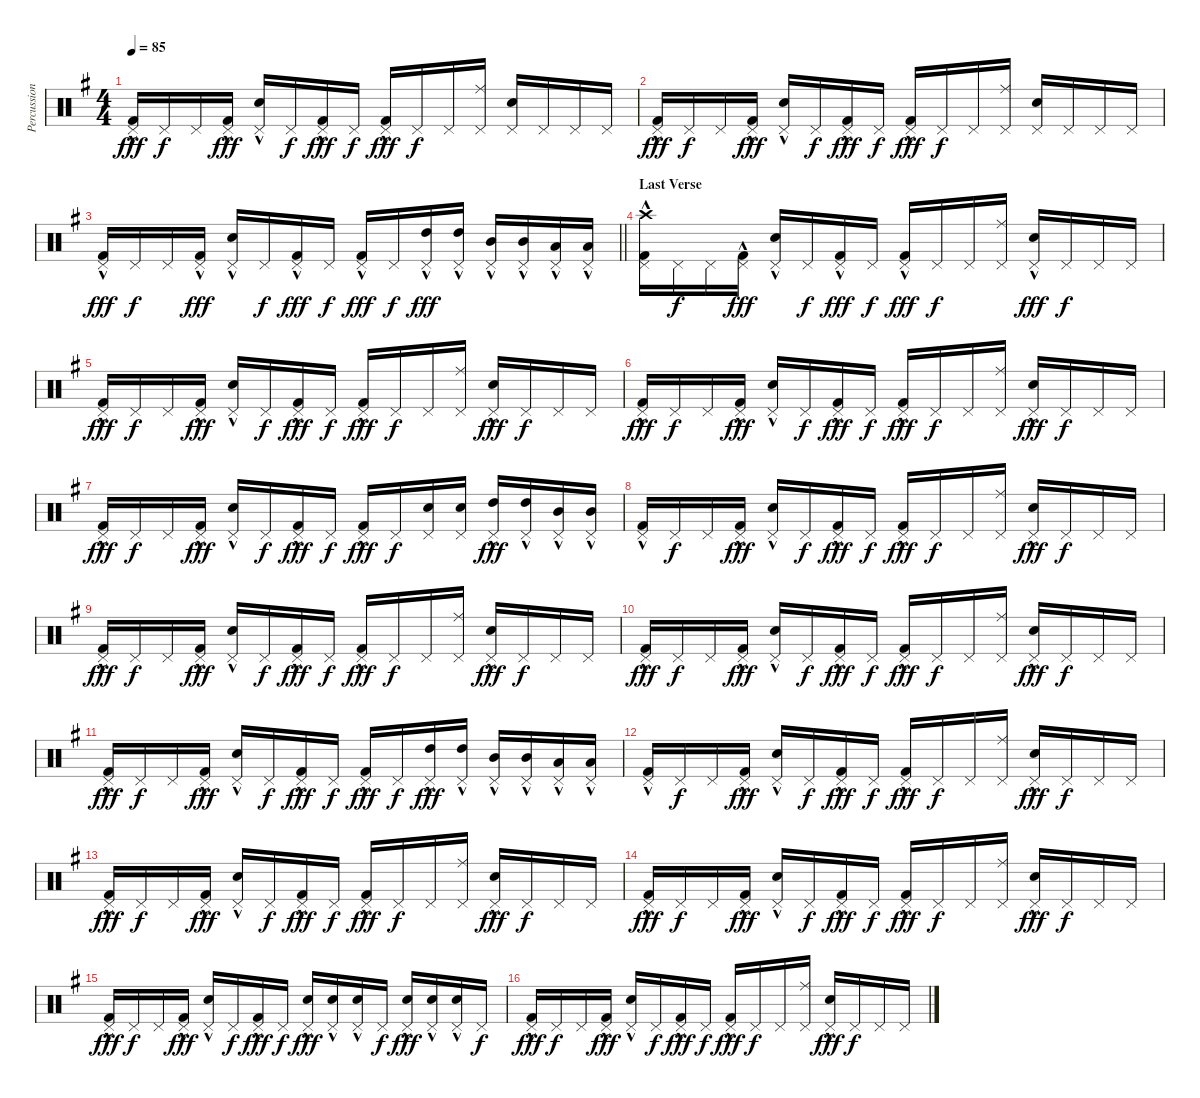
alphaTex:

\track ("Percussion" "Percussion") {instrument percussion}
\staff {score}
\articulation defaults
\ts (4 4)
\tempo 85
\clef neutral
\ks g
("Pedal Hi-Hat (hit)" "Kick (hit) 2"{hac}).16{dy fff} "Pedal Hi-Hat (hit)".16{dy f} "Pedal Hi-Hat (hit)".16 ("Pedal Hi-Hat (hit)" "Kick (hit) 2"{hac}).16{dy fff} ("Pedal Hi-Hat (hit)" "Snare (hit) 2"{hac}).16 "Pedal Hi-Hat (hit)".16{dy f} ("Pedal Hi-Hat (hit)" "Kick (hit) 2"{hac}).16{dy fff} "Pedal Hi-Hat (hit)".16{dy f} ("Pedal Hi-Hat (hit)" "Kick (hit) 2"{hac}).16{dy fff} "Pedal Hi-Hat (hit)".16{dy f} "Pedal Hi-Hat (hit)".16 ("Pedal Hi-Hat (hit)" "Ride (middle)").16 ("Pedal Hi-Hat (hit)" "Electric Snare (hit)").16 "Pedal Hi-Hat (hit)".16 "Pedal Hi-Hat (hit)".16 "Pedal Hi-Hat (hit)".16 |
("Pedal Hi-Hat (hit)" "Kick (hit) 2"{hac}).16{dy fff} "Pedal Hi-Hat (hit)".16{dy f} "Pedal Hi-Hat (hit)".16 ("Pedal Hi-Hat (hit)" "Kick (hit) 2"{hac}).16{dy fff} ("Pedal Hi-Hat (hit)" "Snare (hit) 2"{hac}).16 "Pedal Hi-Hat (hit)".16{dy f} ("Pedal Hi-Hat (hit)" "Kick (hit) 2"{hac}).16{dy fff} "Pedal Hi-Hat (hit)".16{dy f} ("Pedal Hi-Hat (hit)" "Kick (hit) 2"{hac}).16{dy fff} "Pedal Hi-Hat (hit)".16{dy f} "Pedal Hi-Hat (hit)".16 ("Pedal Hi-Hat (hit)" "Ride (middle)").16 ("Pedal Hi-Hat (hit)" "Electric Snare (hit)").16 "Pedal Hi-Hat (hit)".16 "Pedal Hi-Hat (hit)".16 "Pedal Hi-Hat (hit)".16 |
\barLineRight lightlight
("Pedal Hi-Hat (hit)" "Kick (hit) 2"{hac}).16{dy fff} "Pedal Hi-Hat (hit)".16{dy f} "Pedal Hi-Hat (hit)".16 ("Pedal Hi-Hat (hit)" "Kick (hit) 2"{hac}).16{dy fff} ("Pedal Hi-Hat (hit)" "Snare (hit) 2"{hac}).16 "Pedal Hi-Hat (hit)".16{dy f} ("Pedal Hi-Hat (hit)" "Kick (hit) 2"{hac}).16{dy fff} "Pedal Hi-Hat (hit)".16{dy f} ("Pedal Hi-Hat (hit)" "Kick (hit) 2"{hac}).16{dy fff} "Pedal Hi-Hat (hit)".16{dy f} ("Pedal Hi-Hat (hit)" "High Tom (hit)"{hac}).16{dy fff} ("Pedal Hi-Hat (hit)" "High Tom (hit)"{hac}).16 ("Pedal Hi-Hat (hit)" "Mid Tom (hit)"{hac}).16 ("Pedal Hi-Hat (hit)" "Mid Tom (hit)"{hac}).16 ("Pedal Hi-Hat (hit)" "Low Tom (hit)"{hac}).16 ("Pedal Hi-Hat (hit)" "Low Tom (hit)"{hac}).16 |
\section ("" "Last Verse")
("Pedal Hi-Hat (hit)" "Crash high (hit)" "Kick (hit) 2"{hac}).16 "Pedal Hi-Hat (hit)".16{dy f} "Pedal Hi-Hat (hit)".16 ("Pedal Hi-Hat (hit)" "Kick (hit) 2"{hac}).16{dy fff} ("Pedal Hi-Hat (hit)" "Snare (hit) 2"{hac}).16 "Pedal Hi-Hat (hit)".16{dy f} ("Pedal Hi-Hat (hit)" "Kick (hit) 2"{hac}).16{dy fff} "Pedal Hi-Hat (hit)".16{dy f} ("Pedal Hi-Hat (hit)" "Kick (hit) 2"{hac}).16{dy fff} "Pedal Hi-Hat (hit)".16{dy f} "Pedal Hi-Hat (hit)".16 ("Pedal Hi-Hat (hit)" "Ride (middle)").16 ("Pedal Hi-Hat (hit)" "Snare (hit) 2"{hac}).16{dy fff} "Pedal Hi-Hat (hit)".16{dy f} "Pedal Hi-Hat (hit)".16 "Pedal Hi-Hat (hit)".16 |
("Pedal Hi-Hat (hit)" "Kick (hit) 2"{hac}).16{dy fff} "Pedal Hi-Hat (hit)".16{dy f} "Pedal Hi-Hat (hit)".16 ("Pedal Hi-Hat (hit)" "Kick (hit) 2"{hac}).16{dy fff} ("Pedal Hi-Hat (hit)" "Snare (hit) 2"{hac}).16 "Pedal Hi-Hat (hit)".16{dy f} ("Pedal Hi-Hat (hit)" "Kick (hit) 2"{hac}).16{dy fff} "Pedal Hi-Hat (hit)".16{dy f} ("Pedal Hi-Hat (hit)" "Kick (hit) 2"{hac}).16{dy fff} "Pedal Hi-Hat (hit)".16{dy f} "Pedal Hi-Hat (hit)".16 ("Pedal Hi-Hat (hit)" "Ride (middle)").16 ("Pedal Hi-Hat (hit)" "Snare (hit) 2"{hac}).16{dy fff} "Pedal Hi-Hat (hit)".16{dy f} "Pedal Hi-Hat (hit)".16 "Pedal Hi-Hat (hit)".16 |
("Pedal Hi-Hat (hit)" "Kick (hit) 2"{hac}).16{dy fff} "Pedal Hi-Hat (hit)".16{dy f} "Pedal Hi-Hat (hit)".16 ("Pedal Hi-Hat (hit)" "Kick (hit) 2"{hac}).16{dy fff} ("Pedal Hi-Hat (hit)" "Snare (hit) 2"{hac}).16 "Pedal Hi-Hat (hit)".16{dy f} ("Pedal Hi-Hat (hit)" "Kick (hit) 2"{hac}).16{dy fff} "Pedal Hi-Hat (hit)".16{dy f} ("Pedal Hi-Hat (hit)" "Kick (hit) 2"{hac}).16{dy fff} "Pedal Hi-Hat (hit)".16{dy f} "Pedal Hi-Hat (hit)".16 ("Pedal Hi-Hat (hit)" "Ride (middle)").16 ("Pedal Hi-Hat (hit)" "Snare (hit) 2"{hac}).16{dy fff} "Pedal Hi-Hat (hit)".16{dy f} "Pedal Hi-Hat (hit)".16 "Pedal Hi-Hat (hit)".16 |
("Pedal Hi-Hat (hit)" "Kick (hit) 2"{hac}).16{dy fff} "Pedal Hi-Hat (hit)".16{dy f} "Pedal Hi-Hat (hit)".16 ("Pedal Hi-Hat (hit)" "Kick (hit) 2"{hac}).16{dy fff} ("Pedal Hi-Hat (hit)" "Snare (hit) 2"{hac}).16 "Pedal Hi-Hat (hit)".16{dy f} ("Pedal Hi-Hat (hit)" "Kick (hit) 2"{hac}).16{dy fff} "Pedal Hi-Hat (hit)".16{dy f} ("Pedal Hi-Hat (hit)" "Kick (hit) 2"{hac}).16{dy fff} "Pedal Hi-Hat (hit)".16{dy f} ("Pedal Hi-Hat (hit)" "Snare (hit) 2").16 ("Pedal Hi-Hat (hit)" "Snare (hit) 2").16 ("Pedal Hi-Hat (hit)" "High Tom (hit)"{hac}).16{dy fff} ("Pedal Hi-Hat (hit)" "High Tom (hit)"{hac}).16 ("Pedal Hi-Hat (hit)" "Mid Tom (hit)"{hac}).16 ("Pedal Hi-Hat (hit)" "Mid Tom (hit)"{hac}).16 |
("Pedal Hi-Hat (hit)" "Kick (hit) 2"{hac}).16 "Pedal Hi-Hat (hit)".16{dy f} "Pedal Hi-Hat (hit)".16 ("Pedal Hi-Hat (hit)" "Kick (hit) 2"{hac}).16{dy fff} ("Pedal Hi-Hat (hit)" "Snare (hit) 2"{hac}).16 "Pedal Hi-Hat (hit)".16{dy f} ("Pedal Hi-Hat (hit)" "Kick (hit) 2"{hac}).16{dy fff} "Pedal Hi-Hat (hit)".16{dy f} ("Pedal Hi-Hat (hit)" "Kick (hit) 2"{hac}).16{dy fff} "Pedal Hi-Hat (hit)".16{dy f} "Pedal Hi-Hat (hit)".16 ("Pedal Hi-Hat (hit)" "Ride (middle)").16 ("Pedal Hi-Hat (hit)" "Snare (hit) 2"{hac}).16{dy fff} "Pedal Hi-Hat (hit)".16{dy f} "Pedal Hi-Hat (hit)".16 "Pedal Hi-Hat (hit)".16 |
("Pedal Hi-Hat (hit)" "Kick (hit) 2"{hac}).16{dy fff} "Pedal Hi-Hat (hit)".16{dy f} "Pedal Hi-Hat (hit)".16 ("Pedal Hi-Hat (hit)" "Kick (hit) 2"{hac}).16{dy fff} ("Pedal Hi-Hat (hit)" "Snare (hit) 2"{hac}).16 "Pedal Hi-Hat (hit)".16{dy f} ("Pedal Hi-Hat (hit)" "Kick (hit) 2"{hac}).16{dy fff} "Pedal Hi-Hat (hit)".16{dy f} ("Pedal Hi-Hat (hit)" "Kick (hit) 2"{hac}).16{dy fff} "Pedal Hi-Hat (hit)".16{dy f} "Pedal Hi-Hat (hit)".16 ("Pedal Hi-Hat (hit)" "Ride (middle)").16 ("Pedal Hi-Hat (hit)" "Snare (hit) 2"{hac}).16{dy fff} "Pedal Hi-Hat (hit)".16{dy f} "Pedal Hi-Hat (hit)".16 "Pedal Hi-Hat (hit)".16 |
("Pedal Hi-Hat (hit)" "Kick (hit) 2"{hac}).16{dy fff} "Pedal Hi-Hat (hit)".16{dy f} "Pedal Hi-Hat (hit)".16 ("Pedal Hi-Hat (hit)" "Kick (hit) 2"{hac}).16{dy fff} ("Pedal Hi-Hat (hit)" "Snare (hit) 2"{hac}).16 "Pedal Hi-Hat (hit)".16{dy f} ("Pedal Hi-Hat (hit)" "Kick (hit) 2"{hac}).16{dy fff} "Pedal Hi-Hat (hit)".16{dy f} ("Pedal Hi-Hat (hit)" "Kick (hit) 2"{hac}).16{dy fff} "Pedal Hi-Hat (hit)".16{dy f} "Pedal Hi-Hat (hit)".16 ("Pedal Hi-Hat (hit)" "Ride (middle)").16 ("Pedal Hi-Hat (hit)" "Snare (hit) 2"{hac}).16{dy fff} "Pedal Hi-Hat (hit)".16{dy f} "Pedal Hi-Hat (hit)".16 "Pedal Hi-Hat (hit)".16 |
("Pedal Hi-Hat (hit)" "Kick (hit) 2"{hac}).16{dy fff} "Pedal Hi-Hat (hit)".16{dy f} "Pedal Hi-Hat (hit)".16 ("Pedal Hi-Hat (hit)" "Kick (hit) 2"{hac}).16{dy fff} ("Pedal Hi-Hat (hit)" "Snare (hit) 2"{hac}).16 "Pedal Hi-Hat (hit)".16{dy f} ("Pedal Hi-Hat (hit)" "Kick (hit) 2"{hac}).16{dy fff} "Pedal Hi-Hat (hit)".16{dy f} ("Pedal Hi-Hat (hit)" "Kick (hit) 2"{hac}).16{dy fff} "Pedal Hi-Hat (hit)".16{dy f} ("Pedal Hi-Hat (hit)" "High Tom (hit)"{hac}).16{dy fff} ("Pedal Hi-Hat (hit)" "High Tom (hit)"{hac}).16 ("Pedal Hi-Hat (hit)" "Mid Tom (hit)"{hac}).16 ("Pedal Hi-Hat (hit)" "Mid Tom (hit)"{hac}).16 ("Pedal Hi-Hat (hit)" "Low Tom (hit)"{hac}).16 ("Pedal Hi-Hat (hit)" "Low Tom (hit)"{hac}).16 |
("Pedal Hi-Hat (hit)" "Kick (hit) 2"{hac}).16 "Pedal Hi-Hat (hit)".16{dy f} "Pedal Hi-Hat (hit)".16 ("Pedal Hi-Hat (hit)" "Kick (hit) 2"{hac}).16{dy fff} ("Pedal Hi-Hat (hit)" "Snare (hit) 2"{hac}).16 "Pedal Hi-Hat (hit)".16{dy f} ("Pedal Hi-Hat (hit)" "Kick (hit) 2"{hac}).16{dy fff} "Pedal Hi-Hat (hit)".16{dy f} ("Pedal Hi-Hat (hit)" "Kick (hit) 2"{hac}).16{dy fff} "Pedal Hi-Hat (hit)".16{dy f} "Pedal Hi-Hat (hit)".16 ("Pedal Hi-Hat (hit)" "Ride (middle)").16 ("Pedal Hi-Hat (hit)" "Snare (hit) 2"{hac}).16{dy fff} "Pedal Hi-Hat (hit)".16{dy f} "Pedal Hi-Hat (hit)".16 "Pedal Hi-Hat (hit)".16 |
("Pedal Hi-Hat (hit)" "Kick (hit) 2"{hac}).16{dy fff} "Pedal Hi-Hat (hit)".16{dy f} "Pedal Hi-Hat (hit)".16 ("Pedal Hi-Hat (hit)" "Kick (hit) 2"{hac}).16{dy fff} ("Pedal Hi-Hat (hit)" "Snare (hit) 2"{hac}).16 "Pedal Hi-Hat (hit)".16{dy f} ("Pedal Hi-Hat (hit)" "Kick (hit) 2"{hac}).16{dy fff} "Pedal Hi-Hat (hit)".16{dy f} ("Pedal Hi-Hat (hit)" "Kick (hit) 2"{hac}).16{dy fff} "Pedal Hi-Hat (hit)".16{dy f} "Pedal Hi-Hat (hit)".16 ("Pedal Hi-Hat (hit)" "Ride (middle)").16 ("Pedal Hi-Hat (hit)" "Snare (hit) 2"{hac}).16{dy fff} "Pedal Hi-Hat (hit)".16{dy f} "Pedal Hi-Hat (hit)".16 "Pedal Hi-Hat (hit)".16 |
("Pedal Hi-Hat (hit)" "Kick (hit) 2"{hac}).16{dy fff} "Pedal Hi-Hat (hit)".16{dy f} "Pedal Hi-Hat (hit)".16 ("Pedal Hi-Hat (hit)" "Kick (hit) 2"{hac}).16{dy fff} ("Pedal Hi-Hat (hit)" "Snare (hit) 2"{hac}).16 "Pedal Hi-Hat (hit)".16{dy f} ("Pedal Hi-Hat (hit)" "Kick (hit) 2"{hac}).16{dy fff} "Pedal Hi-Hat (hit)".16{dy f} ("Pedal Hi-Hat (hit)" "Kick (hit) 2"{hac}).16{dy fff} "Pedal Hi-Hat (hit)".16{dy f} "Pedal Hi-Hat (hit)".16 ("Pedal Hi-Hat (hit)" "Ride (middle)").16 ("Pedal Hi-Hat (hit)" "Snare (hit) 2"{hac}).16{dy fff} "Pedal Hi-Hat (hit)".16{dy f} "Pedal Hi-Hat (hit)".16 "Pedal Hi-Hat (hit)".16 |
("Pedal Hi-Hat (hit)" "Kick (hit) 2"{hac}).16{dy fff} "Pedal Hi-Hat (hit)".16{dy f} "Pedal Hi-Hat (hit)".16 ("Pedal Hi-Hat (hit)" "Kick (hit) 2"{hac}).16{dy fff} ("Pedal Hi-Hat (hit)" "Snare (hit) 2"{hac}).16 "Pedal Hi-Hat (hit)".16{dy f} ("Pedal Hi-Hat (hit)" "Kick (hit) 2"{hac}).16{dy fff} "Pedal Hi-Hat (hit)".16{dy f} ("Pedal Hi-Hat (hit)" "Snare (hit) 2"{hac}).16{dy fff} ("Pedal Hi-Hat (hit)" "Snare (hit) 2"{hac}).16 ("Pedal Hi-Hat (hit)" "Snare (hit) 2"{hac}).16 "Pedal Hi-Hat (hit)".16{dy f} ("Pedal Hi-Hat (hit)" "Snare (hit) 2"{hac}).16{dy fff} ("Pedal Hi-Hat (hit)" "Snare (hit) 2"{hac}).16 ("Pedal Hi-Hat (hit)" "Snare (hit) 2"{hac}).16 "Pedal Hi-Hat (hit)".16{dy f} |
("Pedal Hi-Hat (hit)" "Kick (hit) 2"{hac}).16{dy fff} "Pedal Hi-Hat (hit)".16{dy f} "Pedal Hi-Hat (hit)".16 ("Pedal Hi-Hat (hit)" "Kick (hit) 2"{hac}).16{dy fff} ("Pedal Hi-Hat (hit)" "Snare (hit) 2"{hac}).16 "Pedal Hi-Hat (hit)".16{dy f} ("Pedal Hi-Hat (hit)" "Kick (hit) 2"{hac}).16{dy fff} "Pedal Hi-Hat (hit)".16{dy f} ("Pedal Hi-Hat (hit)" "Kick (hit) 2"{hac}).16{dy fff} "Pedal Hi-Hat (hit)".16{dy f} "Pedal Hi-Hat (hit)".16 ("Pedal Hi-Hat (hit)" "Ride (middle)").16 ("Pedal Hi-Hat (hit)" "Snare (hit) 2"{hac}).16{dy fff} "Pedal Hi-Hat (hit)".16{dy f} "Pedal Hi-Hat (hit)".16 "Pedal Hi-Hat (hit)".16
